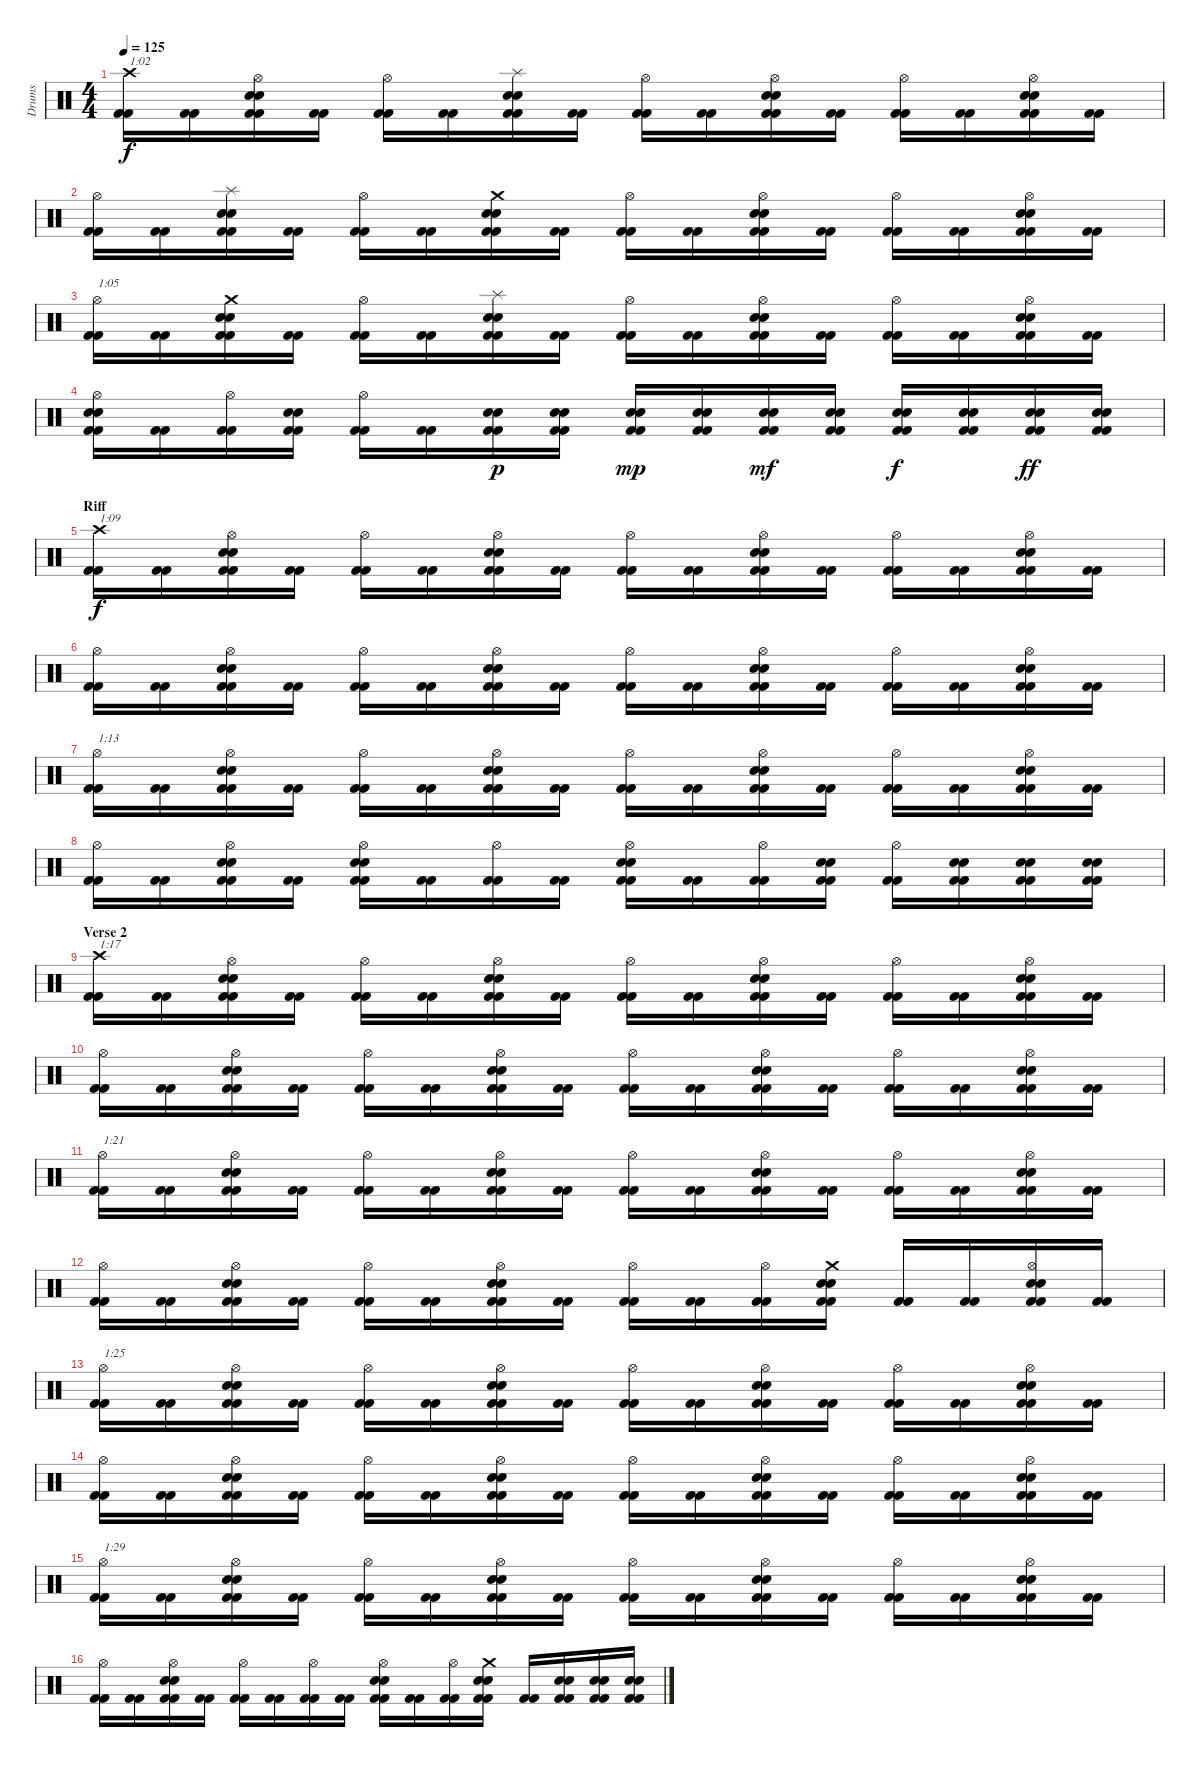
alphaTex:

\track ("Drums" "Drums") {instrument percussion}
\staff {score}
\articulation defaults
\ts (4 4)
\tempo 125
\clef neutral
\ks c
("Crash high (hit)" "Kick (hit) 2" "Kick (hit) 2").16{txt "1:02" dy f} ("Kick (hit) 2" "Kick (hit) 2").16 ("Hi-Hat (open)" "Snare (hit) 2" "Snare (hit) 2" "Kick (hit) 2" "Kick (hit) 2").16 ("Kick (hit) 2" "Kick (hit) 2").16 ("Hi-Hat (open)" "Kick (hit) 2" "Kick (hit) 2").16 ("Kick (hit) 2" "Kick (hit) 2").16 ("Splash (hit)" "Snare (hit) 2" "Snare (hit) 2" "Kick (hit) 2" "Kick (hit) 2").16 ("Kick (hit) 2" "Kick (hit) 2").16 ("Hi-Hat (open)" "Kick (hit) 2" "Kick (hit) 2").16 ("Kick (hit) 2" "Kick (hit) 2").16 ("Hi-Hat (open)" "Snare (hit) 2" "Snare (hit) 2" "Kick (hit) 2" "Kick (hit) 2").16 ("Kick (hit) 2" "Kick (hit) 2").16 ("Hi-Hat (open)" "Kick (hit) 2" "Kick (hit) 2").16 ("Kick (hit) 2" "Kick (hit) 2").16 ("Hi-Hat (open)" "Snare (hit) 2" "Snare (hit) 2" "Kick (hit) 2" "Kick (hit) 2").16 ("Kick (hit) 2" "Kick (hit) 2").16 |
("Hi-Hat (open)" "Kick (hit) 2" "Kick (hit) 2").16 ("Kick (hit) 2" "Kick (hit) 2").16 ("Splash (hit)" "Snare (hit) 2" "Snare (hit) 2" "Kick (hit) 2" "Kick (hit) 2").16 ("Kick (hit) 2" "Kick (hit) 2").16 ("Hi-Hat (open)" "Kick (hit) 2" "Kick (hit) 2").16 ("Kick (hit) 2" "Kick (hit) 2").16 ("Crash medium (hit)" "Snare (hit) 2" "Snare (hit) 2" "Kick (hit) 2" "Kick (hit) 2").16 ("Kick (hit) 2" "Kick (hit) 2").16 ("Hi-Hat (open)" "Kick (hit) 2" "Kick (hit) 2").16 ("Kick (hit) 2" "Kick (hit) 2").16 ("Hi-Hat (open)" "Snare (hit) 2" "Snare (hit) 2" "Kick (hit) 2" "Kick (hit) 2").16 ("Kick (hit) 2" "Kick (hit) 2").16 ("Hi-Hat (open)" "Kick (hit) 2" "Kick (hit) 2").16 ("Kick (hit) 2" "Kick (hit) 2").16 ("Hi-Hat (open)" "Snare (hit) 2" "Snare (hit) 2" "Kick (hit) 2" "Kick (hit) 2").16 ("Kick (hit) 2" "Kick (hit) 2").16 |
("Hi-Hat (open)" "Kick (hit) 2" "Kick (hit) 2").16{txt "1:05"} ("Kick (hit) 2" "Kick (hit) 2").16 ("Crash medium (hit)" "Snare (hit) 2" "Snare (hit) 2" "Kick (hit) 2" "Kick (hit) 2").16 ("Kick (hit) 2" "Kick (hit) 2").16 ("Hi-Hat (open)" "Kick (hit) 2" "Kick (hit) 2").16 ("Kick (hit) 2" "Kick (hit) 2").16 ("Splash (hit)" "Snare (hit) 2" "Snare (hit) 2" "Kick (hit) 2" "Kick (hit) 2").16 ("Kick (hit) 2" "Kick (hit) 2").16 ("Hi-Hat (open)" "Kick (hit) 2" "Kick (hit) 2").16 ("Kick (hit) 2" "Kick (hit) 2").16 ("Hi-Hat (open)" "Snare (hit) 2" "Snare (hit) 2" "Kick (hit) 2" "Kick (hit) 2").16 ("Kick (hit) 2" "Kick (hit) 2").16 ("Hi-Hat (open)" "Kick (hit) 2" "Kick (hit) 2").16 ("Kick (hit) 2" "Kick (hit) 2").16 ("Hi-Hat (open)" "Snare (hit) 2" "Snare (hit) 2" "Kick (hit) 2" "Kick (hit) 2").16 ("Kick (hit) 2" "Kick (hit) 2").16 |
("Hi-Hat (open)" "Snare (hit) 2" "Snare (hit) 2" "Kick (hit) 2" "Kick (hit) 2").16 ("Kick (hit) 2" "Kick (hit) 2").16 ("Hi-Hat (open)" "Kick (hit) 2" "Kick (hit) 2").16 ("Snare (hit) 2" "Snare (hit) 2" "Kick (hit) 2" "Kick (hit) 2").16 ("Hi-Hat (open)" "Kick (hit) 2" "Kick (hit) 2").16 ("Kick (hit) 2" "Kick (hit) 2").16 ("Snare (hit) 2" "Snare (hit) 2" "Kick (hit) 2" "Kick (hit) 2").16{dy p} ("Snare (hit) 2" "Snare (hit) 2" "Kick (hit) 2" "Kick (hit) 2").16 ("Snare (hit) 2" "Snare (hit) 2" "Kick (hit) 2" "Kick (hit) 2").16{dy mp} ("Snare (hit) 2" "Snare (hit) 2" "Kick (hit) 2" "Kick (hit) 2").16 ("Snare (hit) 2" "Snare (hit) 2" "Kick (hit) 2" "Kick (hit) 2").16{dy mf} ("Snare (hit) 2" "Snare (hit) 2" "Kick (hit) 2" "Kick (hit) 2").16 ("Snare (hit) 2" "Snare (hit) 2" "Kick (hit) 2" "Kick (hit) 2").16{dy f} ("Snare (hit) 2" "Snare (hit) 2" "Kick (hit) 2" "Kick (hit) 2").16 ("Snare (hit) 2" "Snare (hit) 2" "Kick (hit) 2" "Kick (hit) 2").16{dy ff} ("Snare (hit) 2" "Snare (hit) 2" "Kick (hit) 2" "Kick (hit) 2").16 |
\section ("" "Riff")
("Crash high (hit)" "Kick (hit) 2" "Kick (hit) 2").16{txt "1:09" dy f} ("Kick (hit) 2" "Kick (hit) 2").16 ("Hi-Hat (open)" "Snare (hit) 2" "Snare (hit) 2" "Kick (hit) 2" "Kick (hit) 2").16 ("Kick (hit) 2" "Kick (hit) 2").16 ("Hi-Hat (open)" "Kick (hit) 2" "Kick (hit) 2").16 ("Kick (hit) 2" "Kick (hit) 2").16 ("Hi-Hat (open)" "Snare (hit) 2" "Snare (hit) 2" "Kick (hit) 2" "Kick (hit) 2").16 ("Kick (hit) 2" "Kick (hit) 2").16 ("Hi-Hat (open)" "Kick (hit) 2" "Kick (hit) 2").16 ("Kick (hit) 2" "Kick (hit) 2").16 ("Hi-Hat (open)" "Snare (hit) 2" "Snare (hit) 2" "Kick (hit) 2" "Kick (hit) 2").16 ("Kick (hit) 2" "Kick (hit) 2").16 ("Hi-Hat (open)" "Kick (hit) 2" "Kick (hit) 2").16 ("Kick (hit) 2" "Kick (hit) 2").16 ("Hi-Hat (open)" "Snare (hit) 2" "Snare (hit) 2" "Kick (hit) 2" "Kick (hit) 2").16 ("Kick (hit) 2" "Kick (hit) 2").16 |
("Hi-Hat (open)" "Kick (hit) 2" "Kick (hit) 2").16 ("Kick (hit) 2" "Kick (hit) 2").16 ("Hi-Hat (open)" "Snare (hit) 2" "Snare (hit) 2" "Kick (hit) 2" "Kick (hit) 2").16 ("Kick (hit) 2" "Kick (hit) 2").16 ("Hi-Hat (open)" "Kick (hit) 2" "Kick (hit) 2").16 ("Kick (hit) 2" "Kick (hit) 2").16 ("Hi-Hat (open)" "Snare (hit) 2" "Snare (hit) 2" "Kick (hit) 2" "Kick (hit) 2").16 ("Kick (hit) 2" "Kick (hit) 2").16 ("Hi-Hat (open)" "Kick (hit) 2" "Kick (hit) 2").16 ("Kick (hit) 2" "Kick (hit) 2").16 ("Hi-Hat (open)" "Snare (hit) 2" "Snare (hit) 2" "Kick (hit) 2" "Kick (hit) 2").16 ("Kick (hit) 2" "Kick (hit) 2").16 ("Hi-Hat (open)" "Kick (hit) 2" "Kick (hit) 2").16 ("Kick (hit) 2" "Kick (hit) 2").16 ("Hi-Hat (open)" "Snare (hit) 2" "Snare (hit) 2" "Kick (hit) 2" "Kick (hit) 2").16 ("Kick (hit) 2" "Kick (hit) 2").16 |
("Hi-Hat (open)" "Kick (hit) 2" "Kick (hit) 2").16{txt "1:13"} ("Kick (hit) 2" "Kick (hit) 2").16 ("Hi-Hat (open)" "Snare (hit) 2" "Snare (hit) 2" "Kick (hit) 2" "Kick (hit) 2").16 ("Kick (hit) 2" "Kick (hit) 2").16 ("Hi-Hat (open)" "Kick (hit) 2" "Kick (hit) 2").16 ("Kick (hit) 2" "Kick (hit) 2").16 ("Hi-Hat (open)" "Snare (hit) 2" "Snare (hit) 2" "Kick (hit) 2" "Kick (hit) 2").16 ("Kick (hit) 2" "Kick (hit) 2").16 ("Hi-Hat (open)" "Kick (hit) 2" "Kick (hit) 2").16 ("Kick (hit) 2" "Kick (hit) 2").16 ("Hi-Hat (open)" "Snare (hit) 2" "Snare (hit) 2" "Kick (hit) 2" "Kick (hit) 2").16 ("Kick (hit) 2" "Kick (hit) 2").16 ("Hi-Hat (open)" "Kick (hit) 2" "Kick (hit) 2").16 ("Kick (hit) 2" "Kick (hit) 2").16 ("Hi-Hat (open)" "Snare (hit) 2" "Snare (hit) 2" "Kick (hit) 2" "Kick (hit) 2").16 ("Kick (hit) 2" "Kick (hit) 2").16 |
("Hi-Hat (open)" "Kick (hit) 2" "Kick (hit) 2").16 ("Kick (hit) 2" "Kick (hit) 2").16 ("Hi-Hat (open)" "Snare (hit) 2" "Snare (hit) 2" "Kick (hit) 2" "Kick (hit) 2").16 ("Kick (hit) 2" "Kick (hit) 2").16 ("Hi-Hat (open)" "Snare (hit) 2" "Snare (hit) 2" "Kick (hit) 2" "Kick (hit) 2").16 ("Kick (hit) 2" "Kick (hit) 2").16 ("Hi-Hat (open)" "Kick (hit) 2" "Kick (hit) 2").16 ("Kick (hit) 2" "Kick (hit) 2").16 ("Hi-Hat (open)" "Snare (hit) 2" "Snare (hit) 2" "Kick (hit) 2" "Kick (hit) 2").16 ("Kick (hit) 2" "Kick (hit) 2").16 ("Hi-Hat (open)" "Kick (hit) 2" "Kick (hit) 2").16 ("Snare (hit) 2" "Snare (hit) 2" "Kick (hit) 2" "Kick (hit) 2").16 ("Hi-Hat (open)" "Kick (hit) 2" "Kick (hit) 2").16 ("Snare (hit) 2" "Snare (hit) 2" "Kick (hit) 2" "Kick (hit) 2").16 ("Snare (hit) 2" "Snare (hit) 2" "Kick (hit) 2" "Kick (hit) 2").16 ("Snare (hit) 2" "Snare (hit) 2" "Kick (hit) 2" "Kick (hit) 2").16 |
\section ("" "Verse 2")
("Crash high (hit)" "Kick (hit) 2" "Kick (hit) 2").16{txt "1:17"} ("Kick (hit) 2" "Kick (hit) 2").16 ("Hi-Hat (open)" "Snare (hit) 2" "Snare (hit) 2" "Kick (hit) 2" "Kick (hit) 2").16 ("Kick (hit) 2" "Kick (hit) 2").16 ("Hi-Hat (open)" "Kick (hit) 2" "Kick (hit) 2").16 ("Kick (hit) 2" "Kick (hit) 2").16 ("Hi-Hat (open)" "Snare (hit) 2" "Snare (hit) 2" "Kick (hit) 2" "Kick (hit) 2").16 ("Kick (hit) 2" "Kick (hit) 2").16 ("Hi-Hat (open)" "Kick (hit) 2" "Kick (hit) 2").16 ("Kick (hit) 2" "Kick (hit) 2").16 ("Hi-Hat (open)" "Snare (hit) 2" "Snare (hit) 2" "Kick (hit) 2" "Kick (hit) 2").16 ("Kick (hit) 2" "Kick (hit) 2").16 ("Hi-Hat (open)" "Kick (hit) 2" "Kick (hit) 2").16 ("Kick (hit) 2" "Kick (hit) 2").16 ("Hi-Hat (open)" "Snare (hit) 2" "Snare (hit) 2" "Kick (hit) 2" "Kick (hit) 2").16 ("Kick (hit) 2" "Kick (hit) 2").16 |
("Hi-Hat (open)" "Kick (hit) 2" "Kick (hit) 2").16 ("Kick (hit) 2" "Kick (hit) 2").16 ("Hi-Hat (open)" "Snare (hit) 2" "Snare (hit) 2" "Kick (hit) 2" "Kick (hit) 2").16 ("Kick (hit) 2" "Kick (hit) 2").16 ("Hi-Hat (open)" "Kick (hit) 2" "Kick (hit) 2").16 ("Kick (hit) 2" "Kick (hit) 2").16 ("Hi-Hat (open)" "Snare (hit) 2" "Snare (hit) 2" "Kick (hit) 2" "Kick (hit) 2").16 ("Kick (hit) 2" "Kick (hit) 2").16 ("Hi-Hat (open)" "Kick (hit) 2" "Kick (hit) 2").16 ("Kick (hit) 2" "Kick (hit) 2").16 ("Hi-Hat (open)" "Snare (hit) 2" "Snare (hit) 2" "Kick (hit) 2" "Kick (hit) 2").16 ("Kick (hit) 2" "Kick (hit) 2").16 ("Hi-Hat (open)" "Kick (hit) 2" "Kick (hit) 2").16 ("Kick (hit) 2" "Kick (hit) 2").16 ("Hi-Hat (open)" "Snare (hit) 2" "Snare (hit) 2" "Kick (hit) 2" "Kick (hit) 2").16 ("Kick (hit) 2" "Kick (hit) 2").16 |
("Hi-Hat (open)" "Kick (hit) 2" "Kick (hit) 2").16{txt "1:21"} ("Kick (hit) 2" "Kick (hit) 2").16 ("Hi-Hat (open)" "Snare (hit) 2" "Snare (hit) 2" "Kick (hit) 2" "Kick (hit) 2").16 ("Kick (hit) 2" "Kick (hit) 2").16 ("Hi-Hat (open)" "Kick (hit) 2" "Kick (hit) 2").16 ("Kick (hit) 2" "Kick (hit) 2").16 ("Hi-Hat (open)" "Snare (hit) 2" "Snare (hit) 2" "Kick (hit) 2" "Kick (hit) 2").16 ("Kick (hit) 2" "Kick (hit) 2").16 ("Hi-Hat (open)" "Kick (hit) 2" "Kick (hit) 2").16 ("Kick (hit) 2" "Kick (hit) 2").16 ("Hi-Hat (open)" "Snare (hit) 2" "Snare (hit) 2" "Kick (hit) 2" "Kick (hit) 2").16 ("Kick (hit) 2" "Kick (hit) 2").16 ("Hi-Hat (open)" "Kick (hit) 2" "Kick (hit) 2").16 ("Kick (hit) 2" "Kick (hit) 2").16 ("Hi-Hat (open)" "Snare (hit) 2" "Snare (hit) 2" "Kick (hit) 2" "Kick (hit) 2").16 ("Kick (hit) 2" "Kick (hit) 2").16 |
("Hi-Hat (open)" "Kick (hit) 2" "Kick (hit) 2").16 ("Kick (hit) 2" "Kick (hit) 2").16 ("Hi-Hat (open)" "Snare (hit) 2" "Snare (hit) 2" "Kick (hit) 2" "Kick (hit) 2").16 ("Kick (hit) 2" "Kick (hit) 2").16 ("Hi-Hat (open)" "Kick (hit) 2" "Kick (hit) 2").16 ("Kick (hit) 2" "Kick (hit) 2").16 ("Hi-Hat (open)" "Snare (hit) 2" "Snare (hit) 2" "Kick (hit) 2" "Kick (hit) 2").16 ("Kick (hit) 2" "Kick (hit) 2").16 ("Hi-Hat (open)" "Kick (hit) 2" "Kick (hit) 2").16 ("Kick (hit) 2" "Kick (hit) 2").16 ("Hi-Hat (open)" "Kick (hit) 2" "Kick (hit) 2").16 ("Crash medium (hit)" "Snare (hit) 2" "Snare (hit) 2" "Kick (hit) 2" "Kick (hit) 2").16 ("Kick (hit) 2" "Kick (hit) 2").16 ("Kick (hit) 2" "Kick (hit) 2").16 ("Hi-Hat (open)" "Snare (hit) 2" "Snare (hit) 2" "Kick (hit) 2" "Kick (hit) 2").16 ("Kick (hit) 2" "Kick (hit) 2").16 |
("Hi-Hat (open)" "Kick (hit) 2" "Kick (hit) 2").16{txt "1:25"} ("Kick (hit) 2" "Kick (hit) 2").16 ("Hi-Hat (open)" "Snare (hit) 2" "Snare (hit) 2" "Kick (hit) 2" "Kick (hit) 2").16 ("Kick (hit) 2" "Kick (hit) 2").16 ("Hi-Hat (open)" "Kick (hit) 2" "Kick (hit) 2").16 ("Kick (hit) 2" "Kick (hit) 2").16 ("Hi-Hat (open)" "Snare (hit) 2" "Snare (hit) 2" "Kick (hit) 2" "Kick (hit) 2").16 ("Kick (hit) 2" "Kick (hit) 2").16 ("Hi-Hat (open)" "Kick (hit) 2" "Kick (hit) 2").16 ("Kick (hit) 2" "Kick (hit) 2").16 ("Hi-Hat (open)" "Snare (hit) 2" "Snare (hit) 2" "Kick (hit) 2" "Kick (hit) 2").16 ("Kick (hit) 2" "Kick (hit) 2").16 ("Hi-Hat (open)" "Kick (hit) 2" "Kick (hit) 2").16 ("Kick (hit) 2" "Kick (hit) 2").16 ("Hi-Hat (open)" "Snare (hit) 2" "Snare (hit) 2" "Kick (hit) 2" "Kick (hit) 2").16 ("Kick (hit) 2" "Kick (hit) 2").16 |
("Hi-Hat (open)" "Kick (hit) 2" "Kick (hit) 2").16 ("Kick (hit) 2" "Kick (hit) 2").16 ("Hi-Hat (open)" "Snare (hit) 2" "Snare (hit) 2" "Kick (hit) 2" "Kick (hit) 2").16 ("Kick (hit) 2" "Kick (hit) 2").16 ("Hi-Hat (open)" "Kick (hit) 2" "Kick (hit) 2").16 ("Kick (hit) 2" "Kick (hit) 2").16 ("Hi-Hat (open)" "Snare (hit) 2" "Snare (hit) 2" "Kick (hit) 2" "Kick (hit) 2").16 ("Kick (hit) 2" "Kick (hit) 2").16 ("Hi-Hat (open)" "Kick (hit) 2" "Kick (hit) 2").16 ("Kick (hit) 2" "Kick (hit) 2").16 ("Hi-Hat (open)" "Snare (hit) 2" "Snare (hit) 2" "Kick (hit) 2" "Kick (hit) 2").16 ("Kick (hit) 2" "Kick (hit) 2").16 ("Hi-Hat (open)" "Kick (hit) 2" "Kick (hit) 2").16 ("Kick (hit) 2" "Kick (hit) 2").16 ("Hi-Hat (open)" "Snare (hit) 2" "Snare (hit) 2" "Kick (hit) 2" "Kick (hit) 2").16 ("Kick (hit) 2" "Kick (hit) 2").16 |
("Hi-Hat (open)" "Kick (hit) 2" "Kick (hit) 2").16{txt "1:29"} ("Kick (hit) 2" "Kick (hit) 2").16 ("Hi-Hat (open)" "Snare (hit) 2" "Snare (hit) 2" "Kick (hit) 2" "Kick (hit) 2").16 ("Kick (hit) 2" "Kick (hit) 2").16 ("Hi-Hat (open)" "Kick (hit) 2" "Kick (hit) 2").16 ("Kick (hit) 2" "Kick (hit) 2").16 ("Hi-Hat (open)" "Snare (hit) 2" "Snare (hit) 2" "Kick (hit) 2" "Kick (hit) 2").16 ("Kick (hit) 2" "Kick (hit) 2").16 ("Hi-Hat (open)" "Kick (hit) 2" "Kick (hit) 2").16 ("Kick (hit) 2" "Kick (hit) 2").16 ("Hi-Hat (open)" "Snare (hit) 2" "Snare (hit) 2" "Kick (hit) 2" "Kick (hit) 2").16 ("Kick (hit) 2" "Kick (hit) 2").16 ("Hi-Hat (open)" "Kick (hit) 2" "Kick (hit) 2").16 ("Kick (hit) 2" "Kick (hit) 2").16 ("Hi-Hat (open)" "Snare (hit) 2" "Snare (hit) 2" "Kick (hit) 2" "Kick (hit) 2").16 ("Kick (hit) 2" "Kick (hit) 2").16 |
("Hi-Hat (open)" "Kick (hit) 2" "Kick (hit) 2").16 ("Kick (hit) 2" "Kick (hit) 2").16 ("Hi-Hat (open)" "Snare (hit) 2" "Snare (hit) 2" "Kick (hit) 2" "Kick (hit) 2").16 ("Kick (hit) 2" "Kick (hit) 2").16 ("Hi-Hat (open)" "Kick (hit) 2" "Kick (hit) 2").16 ("Kick (hit) 2" "Kick (hit) 2").16 ("Hi-Hat (open)" "Kick (hit) 2" "Kick (hit) 2").16 ("Kick (hit) 2" "Kick (hit) 2").16 ("Hi-Hat (open)" "Snare (hit) 2" "Snare (hit) 2" "Kick (hit) 2" "Kick (hit) 2").16 ("Kick (hit) 2" "Kick (hit) 2").16 ("Hi-Hat (open)" "Kick (hit) 2" "Kick (hit) 2").16 ("Crash medium (hit)" "Snare (hit) 2" "Snare (hit) 2" "Kick (hit) 2" "Kick (hit) 2").16 ("Kick (hit) 2" "Kick (hit) 2").16 ("Snare (hit) 2" "Snare (hit) 2" "Kick (hit) 2" "Kick (hit) 2").16 ("Snare (hit) 2" "Snare (hit) 2" "Kick (hit) 2" "Kick (hit) 2").16 ("Snare (hit) 2" "Snare (hit) 2" "Kick (hit) 2" "Kick (hit) 2").16
